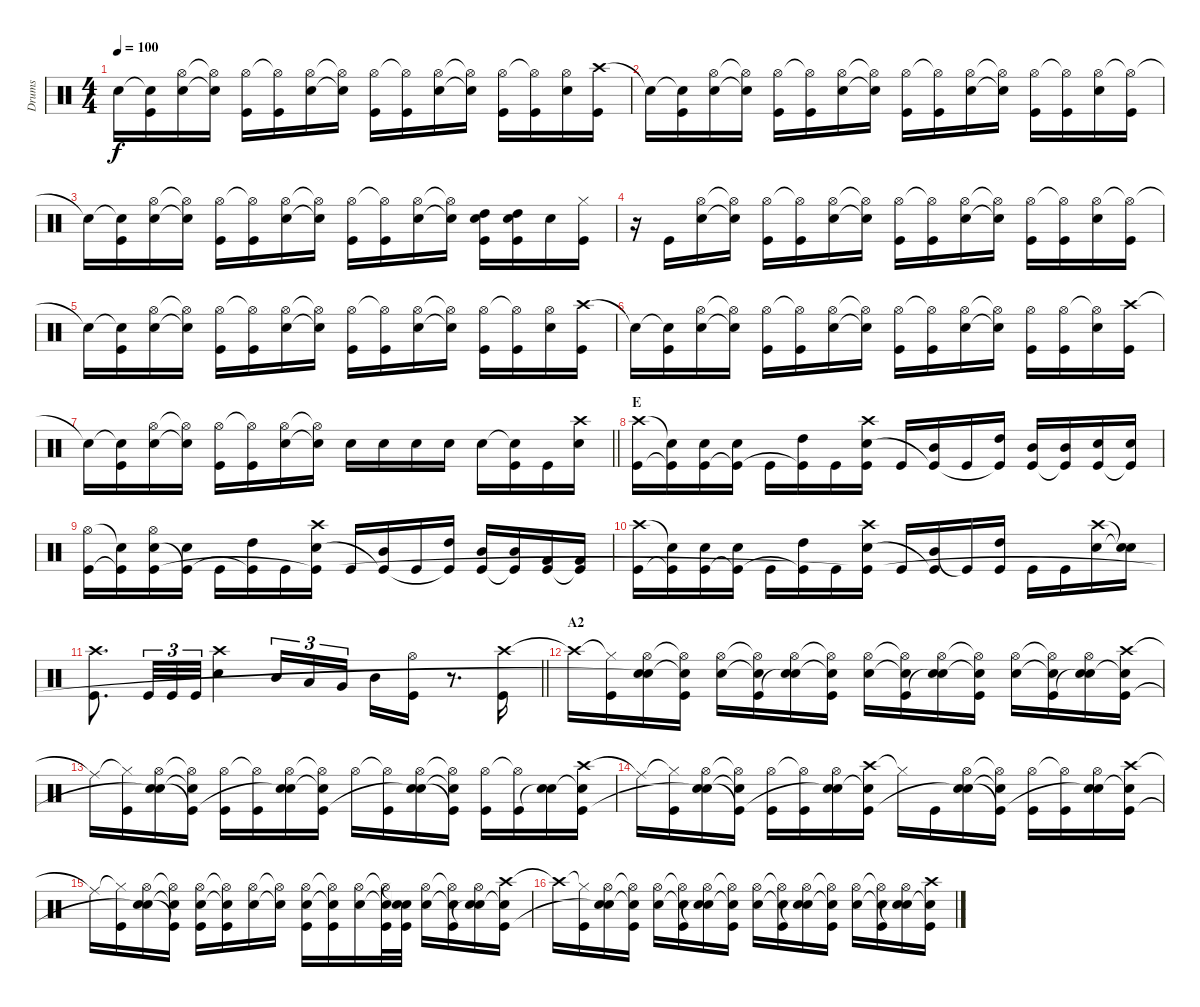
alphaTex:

\track ("Drums" "Drums") {instrument percussion}
\staff {score}
\articulation defaults
\ts (4 4)
\tempo 100
\clef neutral
\ks c "Snare (hit)"{t}.16{dy f}
("Snare (hit)"{t} "Kick (hit)").16 ("Hi-Hat (open)" "Snare (hit) 2").16 ("Hi-Hat (open)"{t} "Snare (hit)"{t}).16 ("Hi-Hat (open)" "Kick (hit)").16 ("Hi-Hat (open)"{t} "Kick (hit)").16 ("Hi-Hat (open)" "Snare (hit) 2").16 ("Hi-Hat (open)"{t} "Snare (hit)"{t}).16 ("Hi-Hat (open)" "Kick (hit)").16 ("Hi-Hat (open)"{t} "Kick (hit)").16 ("Hi-Hat (open)" "Snare (hit) 2").16 ("Hi-Hat (open)"{t} "Snare (hit)"{t}).16 ("Hi-Hat (open)" "Kick (hit)").16 ("Hi-Hat (open)"{t} "Kick (hit)").16 ("Hi-Hat (open)" "Snare (hit) 2").16 ("Crash high (hit)" "Kick (hit)").16 |
"Snare (hit)"{t}.16 ("Snare (hit)"{t} "Kick (hit)").16 ("Hi-Hat (open)" "Snare (hit) 2").16 ("Hi-Hat (open)"{t} "Snare (hit)"{t}).16 ("Hi-Hat (open)" "Kick (hit)").16 ("Hi-Hat (open)"{t} "Kick (hit)").16 ("Hi-Hat (open)" "Snare (hit) 2").16 ("Hi-Hat (open)"{t} "Snare (hit)"{t}).16 ("Hi-Hat (open)" "Kick (hit)").16 ("Hi-Hat (open)"{t} "Kick (hit)").16 ("Hi-Hat (open)" "Snare (hit) 2").16 ("Hi-Hat (open)"{t} "Snare (hit)"{t}).16 ("Hi-Hat (open)" "Kick (hit)").16 ("Hi-Hat (open)"{t} "Kick (hit)").16 ("Hi-Hat (open)" "Snare (hit) 2").16 ("Hi-Hat (open)"{t} "Kick (hit)").16 |
"Snare (hit)"{t}.16 ("Snare (hit)"{t} "Kick (hit)").16 ("Hi-Hat (open)" "Snare (hit) 2").16 ("Hi-Hat (open)"{t} "Snare (hit)"{t}).16 ("Hi-Hat (open)" "Kick (hit)").16 ("Hi-Hat (open)"{t} "Kick (hit)").16 ("Hi-Hat (open)" "Snare (hit) 2").16 ("Hi-Hat (open)"{t} "Snare (hit)"{t}).16 ("Hi-Hat (open)" "Kick (hit)").16 ("Hi-Hat (open)"{t} "Kick (hit)").16 ("Hi-Hat (open)" "Snare (hit) 2").16 ("Hi-Hat (open)"{t} "Snare (hit)"{t}).16 ("High Tom (hit)" "Snare (hit) 2" "Kick (hit)").16 ("High Tom (hit)" "Snare (hit) 2" "Kick (hit)").16 "Snare (hit) 2".16 ("Hi-Hat (closed)" "Kick (hit)").16 |
r.16 "Kick (hit)".16 ("Hi-Hat (open)" "Snare (hit) 2").16 ("Hi-Hat (open)"{t} "Snare (hit)"{t}).16 ("Hi-Hat (open)" "Kick (hit)").16 ("Hi-Hat (open)"{t} "Kick (hit)").16 ("Hi-Hat (open)" "Snare (hit) 2").16 ("Hi-Hat (open)"{t} "Snare (hit)"{t}).16 ("Hi-Hat (open)" "Kick (hit)").16 ("Hi-Hat (open)"{t} "Kick (hit)").16 ("Hi-Hat (open)" "Snare (hit) 2").16 ("Hi-Hat (open)"{t} "Snare (hit)"{t}).16 ("Hi-Hat (open)" "Kick (hit)").16 ("Hi-Hat (open)"{t} "Kick (hit)").16 ("Hi-Hat (open)" "Snare (hit) 2").16 ("Hi-Hat (open)"{t} "Kick (hit)").16 |
"Snare (hit)"{t}.16 ("Snare (hit)"{t} "Kick (hit)").16 ("Hi-Hat (open)" "Snare (hit) 2").16 ("Hi-Hat (open)"{t} "Snare (hit)"{t}).16 ("Hi-Hat (open)" "Kick (hit)").16 ("Hi-Hat (open)"{t} "Kick (hit)").16 ("Hi-Hat (open)" "Snare (hit) 2").16 ("Hi-Hat (open)"{t} "Snare (hit)"{t}).16 ("Hi-Hat (open)" "Kick (hit)").16 ("Hi-Hat (open)"{t} "Kick (hit)").16 ("Hi-Hat (open)" "Snare (hit) 2").16 ("Hi-Hat (open)"{t} "Snare (hit)"{t}).16 ("Hi-Hat (open)" "Kick (hit)").16 ("Hi-Hat (open)"{t} "Kick (hit)").16 ("Hi-Hat (open)" "Snare (hit) 2").16 ("Crash high (hit)" "Kick (hit)").16 |
"Snare (hit)"{t}.16 ("Snare (hit)"{t} "Kick (hit)").16 ("Hi-Hat (open)" "Snare (hit) 2").16 ("Hi-Hat (open)"{t} "Snare (hit)"{t}).16 ("Hi-Hat (open)" "Kick (hit)").16 ("Hi-Hat (open)"{t} "Kick (hit)").16 ("Hi-Hat (open)" "Snare (hit) 2").16 ("Hi-Hat (open)"{t} "Snare (hit)"{t}).16 ("Hi-Hat (open)" "Kick (hit)").16 ("Hi-Hat (open)"{t} "Kick (hit)").16 ("Hi-Hat (open)" "Snare (hit) 2").16 ("Hi-Hat (open)"{t} "Snare (hit)"{t}).16 ("Hi-Hat (open)" "Kick (hit)").16 ("Hi-Hat (open)" "Kick (hit)").16 ("Hi-Hat (open)"{t} "Snare (hit) 2").16 ("Crash high (hit)" "Kick (hit)").16 |
\barLineRight lightlight "Snare (hit)"{t}.16
("Snare (hit)"{t} "Kick (hit)").16 ("Hi-Hat (open)" "Snare (hit) 2").16 ("Hi-Hat (open)"{t} "Snare (hit)"{t}).16 ("Hi-Hat (open)" "Kick (hit)").16 ("Hi-Hat (open)"{t} "Kick (hit)").16 ("Hi-Hat (open)" "Snare (hit) 2").16 ("Hi-Hat (open)"{t} "Snare (hit)"{t}).16 "Snare (hit) 2".16 "Snare (hit) 2".16 "Snare (hit) 2".16 "Snare (hit) 2".16 "Snare (hit) 2".16 ("Snare (hit)"{t} "Kick (hit)").16 "Kick (hit)".16 ("Crash high (hit)" "Snare (hit) 2").16 |
\section ("" "E")
("Crash high (hit)" "Kick (hit)").16 ("Snare (hit)"{t} "Kick (hit)"{t}).16 ("Snare (hit) 2" "Kick (hit)").16 ("Snare (hit) 2" "Kick (hit)"{t}).16 "Kick (hit)".16 ("High Tom (hit)" "Kick (hit)"{t}).16 "Kick (hit)".16 ("Crash high (hit)" "Snare (hit) 2" "Kick (hit)").16 "Kick (hit)".16 ("Mid Tom (hit)" "Kick (hit)"{t}).16 "Kick (hit)".16 ("High Tom (hit)" "Kick (hit)"{t}).16 ("Mid Tom (hit)" "Kick (hit)").16 ("Mid Tom (hit)" "Kick (hit)"{t}).16 ("Snare (hit) 2" "Kick (hit)").16 ("Snare (hit) 2" "Kick (hit)"{t}).16 |
("Hi-Hat (open)" "Kick (hit)").16 ("Snare (hit)"{t} "Kick (hit)"{t}).16 ("Hi-Hat (open)" "Snare (hit) 2" "Kick (hit)").16 ("Snare (hit) 2" "Kick (hit)"{t}).16 "Kick (hit)".16 ("High Tom (hit)" "Kick (hit)"{t}).16 "Kick (hit)".16 ("Crash high (hit)" "Snare (hit) 2" "Kick (hit)"{t}).16 "Kick (hit)".16 ("Mid Tom (hit)" "Kick (hit)"{t}).16 "Kick (hit)".16 ("High Tom (hit)" "Kick (hit)"{t}).16 ("Mid Tom (hit)" "Kick (hit)").16 ("Mid Tom (hit)" "Kick (hit)"{t}).16 ("Very Low Tom (hit)" "Kick (hit)").16 ("Very Low Tom (hit)" "Kick (hit)"{t}).16 |
("Crash high (hit)" "Kick (hit)").16 ("Snare (hit)"{t} "Kick (hit)"{t}).16 ("Snare (hit) 2" "Kick (hit)").16 ("Snare (hit) 2" "Kick (hit)"{t}).16 "Kick (hit)".16 ("High Tom (hit)" "Kick (hit)"{t}).16 "Kick (hit)".16 ("Crash high (hit)" "Snare (hit) 2" "Kick (hit)"{t}).16 "Kick (hit)".16 ("Mid Tom (hit)" "Kick (hit)"{t}).16 "Kick (hit)"{t}.16 ("High Tom (hit)" "Kick (hit)").16 "Kick (hit)".16 "Kick (hit)".16 ("Crash high (hit)" "Snare (hit) 2").16 ("Snare (hit)"{t} "Snare (hit) 2"{t}).16 |
\barLineRight lightlight
("Crash high (hit)" "Kick (hit)").8{d} "Kick (hit)".32{tu (3 2)} "Kick (hit)".32{tu (3 2)} "Kick (hit)".32{tu (3 2)} ("Crash high (hit)" "Snare (hit) 2").4 "Mid Tom (hit)".16{tu (3 2)} "Low Tom (hit)".16{tu (3 2)} "Very Low Tom (hit)".16{tu (3 2) beam splitsecondary} "Mid Tom (hit)".16 ("Hi-Hat (open)" "Kick (hit)").16 r.8{d} ("Crash high (hit)" "Kick (hit)").16 |
\section ("" "A2")
"Crash high (hit)"{t}.16 ("Hi-Hat (closed)"{t} "Kick (hit)").16 ("Hi-Hat (open)" "Snare (hit) 2" "Snare (hit)"{t}).16 ("Hi-Hat (open)"{t} "Snare (hit) 2"{t} "Kick (hit)").16 ("Hi-Hat (open)" "Snare (hit) 2").16 ("Hi-Hat (open)"{t} "Snare (hit) 2"{t} "Kick (hit)").16 ("Hi-Hat (open)" "Snare (hit) 2" "Snare (hit)"{t}).16 ("Hi-Hat (open)"{t} "Snare (hit) 2"{t} "Kick (hit)").16 ("Hi-Hat (open)" "Snare (hit) 2").16 ("Hi-Hat (open)"{t} "Snare (hit) 2"{t} "Kick (hit)").16 ("Hi-Hat (open)" "Snare (hit) 2" "Snare (hit)"{t}).16 ("Hi-Hat (open)"{t} "Snare (hit) 2"{t} "Kick (hit)").16 ("Hi-Hat (open)" "Snare (hit) 2").16 ("Hi-Hat (open)"{t} "Snare (hit) 2"{t} "Kick (hit)").16 ("Hi-Hat (open)" "Snare (hit) 2" "Snare (hit)"{t}).16 ("Crash high (hit)" "Snare (hit) 2"{t} "Kick (hit)").16 |
"Ride (middle)"{t}.16 ("Hi-Hat (closed)"{t} "Kick (hit)").16 ("Hi-Hat (open)" "Snare (hit) 2" "Snare (hit)"{t}).16 ("Hi-Hat (open)"{t} "Snare (hit) 2"{t} "Kick (hit)"{t}).16 ("Hi-Hat (open)" "Kick (hit)").16 ("Hi-Hat (open)"{t} "Kick (hit)").16 ("Hi-Hat (open)" "Snare (hit) 2" "Snare (hit)"{t}).16 ("Hi-Hat (open)"{t} "Snare (hit) 2"{t} "Kick (hit)").16 "Hi-Hat (open)".16 ("Hi-Hat (open)"{t} "Kick (hit)").16 ("Hi-Hat (open)" "Snare (hit) 2" "Snare (hit)"{t}).16 ("Hi-Hat (open)"{t} "Snare (hit) 2"{t} "Kick (hit)"{t}).16 ("Hi-Hat (open)" "Kick (hit)").16 ("Hi-Hat (open)"{t} "Kick (hit)").16 ("Snare (hit) 2" "Snare (hit)"{t}).16 ("Crash high (hit)" "Snare (hit) 2"{t} "Kick (hit)").16 |
"Ride (middle)"{t}.16 ("Hi-Hat (closed)"{t} "Kick (hit)").16 ("Hi-Hat (open)" "Snare (hit) 2" "Snare (hit)"{t}).16 ("Hi-Hat (open)"{t} "Snare (hit) 2"{t} "Kick (hit)"{t}).16 ("Hi-Hat (open)" "Kick (hit)").16 ("Hi-Hat (open)"{t} "Kick (hit)").16 ("Hi-Hat (open)" "Snare (hit) 2" "Snare (hit)"{t}).16 ("Crash high (hit)" "Snare (hit) 2"{t} "Kick (hit)").16 "Hi-Hat (closed)"{t}.16 "Kick (hit)".16 ("Hi-Hat (open)" "Snare (hit) 2" "Snare (hit)"{t}).16 ("Hi-Hat (open)"{t} "Snare (hit) 2"{t} "Kick (hit)"{t}).16 ("Hi-Hat (open)" "Kick (hit)").16 ("Hi-Hat (open)"{t} "Kick (hit)").16 ("Hi-Hat (open)" "Snare (hit) 2" "Snare (hit)"{t}).16 ("Crash high (hit)" "Snare (hit) 2"{t} "Kick (hit)").16 |
"Ride (middle)"{t}.16 ("Hi-Hat (closed)"{t} "Kick (hit)").16 ("Hi-Hat (open)" "Snare (hit) 2" "Snare (hit)"{t}).16 ("Hi-Hat (open)"{t} "Snare (hit) 2"{t} "Kick (hit)"{t}).16 ("Hi-Hat (open)" "Snare (hit) 2" "Kick (hit)").16 ("Hi-Hat (open)"{t} "Snare (hit) 2"{t} "Kick (hit)").16 ("Hi-Hat (open)" "Snare (hit) 2").16 ("Hi-Hat (open)"{t} "Snare (hit) 2"{t}).16 ("Hi-Hat (open)" "Snare (hit) 2" "Kick (hit)").16 ("Hi-Hat (open)"{t} "Snare (hit) 2"{t} "Kick (hit)").16 ("Hi-Hat (open)" "Snare (hit) 2").16 ("Hi-Hat (open)"{t} "Snare (hit) 2"{t} "Kick (hit)").32 ("Snare (hit)"{t} "Snare (hit)"{t} "Kick (hit)").32 ("Hi-Hat (open)" "Snare (hit) 2").16 ("Hi-Hat (open)"{t} "Snare (hit) 2"{t} "Kick (hit)").16 ("Hi-Hat (open)" "Snare (hit) 2" "Snare (hit)"{t}).16 ("Crash high (hit)" "Snare (hit) 2"{t} "Kick (hit)").16 |
"Crash high (hit)"{t}.16 ("Hi-Hat (closed)"{t} "Kick (hit)").16 ("Hi-Hat (open)" "Snare (hit) 2" "Snare (hit)"{t}).16 ("Hi-Hat (open)"{t} "Snare (hit) 2"{t} "Kick (hit)").16 ("Hi-Hat (open)" "Snare (hit) 2").16 ("Hi-Hat (open)"{t} "Snare (hit) 2"{t} "Kick (hit)").16 ("Hi-Hat (open)" "Snare (hit) 2" "Snare (hit)"{t}).16 ("Hi-Hat (open)"{t} "Snare (hit) 2"{t} "Kick (hit)").16 ("Hi-Hat (open)" "Snare (hit) 2").16 ("Hi-Hat (open)"{t} "Snare (hit) 2"{t} "Kick (hit)").16 ("Hi-Hat (open)" "Snare (hit) 2" "Snare (hit)"{t}).16 ("Hi-Hat (open)"{t} "Snare (hit) 2"{t} "Kick (hit)").16 ("Hi-Hat (open)" "Snare (hit) 2").16 ("Hi-Hat (open)"{t} "Snare (hit) 2"{t} "Kick (hit)").16 ("Hi-Hat (open)" "Snare (hit) 2" "Snare (hit)"{t}).16 ("Crash high (hit)" "Snare (hit) 2"{t} "Kick (hit)").16
